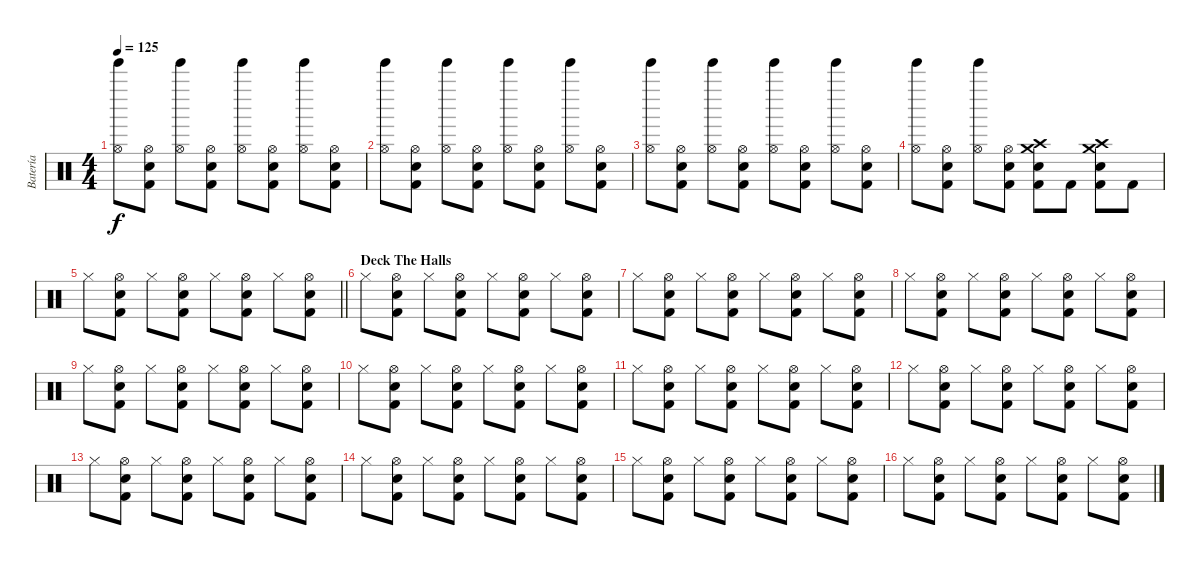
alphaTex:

\track ("Batería" "Batería") {instrument percussion}
\staff {score}
\articulation defaults
\ts (4 4)
\tempo 125
\clef neutral
\ks c
("Tinkle Bell (hit)" "Hi-Hat (open)").8{dy f} ("Snare (hit) 2" "Hi-Hat (open)" "Kick (hit) 2").8 ("Tinkle Bell (hit)" "Hi-Hat (open)").8 ("Snare (hit) 2" "Hi-Hat (open)" "Kick (hit) 2").8 ("Tinkle Bell (hit)" "Hi-Hat (open)").8 ("Snare (hit) 2" "Hi-Hat (open)" "Kick (hit) 2").8 ("Tinkle Bell (hit)" "Hi-Hat (open)").8 ("Snare (hit) 2" "Hi-Hat (open)" "Kick (hit) 2").8 |
("Tinkle Bell (hit)" "Hi-Hat (open)").8 ("Snare (hit) 2" "Hi-Hat (open)" "Kick (hit) 2").8 ("Tinkle Bell (hit)" "Hi-Hat (open)").8 ("Snare (hit) 2" "Hi-Hat (open)" "Kick (hit) 2").8 ("Tinkle Bell (hit)" "Hi-Hat (open)").8 ("Snare (hit) 2" "Hi-Hat (open)" "Kick (hit) 2").8 ("Tinkle Bell (hit)" "Hi-Hat (open)").8 ("Snare (hit) 2" "Hi-Hat (open)" "Kick (hit) 2").8 |
("Tinkle Bell (hit)" "Hi-Hat (open)").8 ("Snare (hit) 2" "Hi-Hat (open)" "Kick (hit) 2").8 ("Tinkle Bell (hit)" "Hi-Hat (open)").8 ("Snare (hit) 2" "Hi-Hat (open)" "Kick (hit) 2").8 ("Tinkle Bell (hit)" "Hi-Hat (open)").8 ("Snare (hit) 2" "Hi-Hat (open)" "Kick (hit) 2").8 ("Tinkle Bell (hit)" "Hi-Hat (open)").8 ("Snare (hit) 2" "Hi-Hat (open)" "Kick (hit) 2").8 |
("Tinkle Bell (hit)" "Hi-Hat (open)").8 ("Snare (hit) 2" "Hi-Hat (open)" "Kick (hit) 2").8 ("Tinkle Bell (hit)" "Hi-Hat (open)").8 ("Snare (hit) 2" "Hi-Hat (open)" "Kick (hit) 2").8 ("Crash medium (hit)" "Crash high (hit)" "Snare (hit) 2" "Kick (hit) 2").8 "Kick (hit) 2".8 ("Crash medium (hit)" "Crash high (hit)" "Snare (hit) 2" "Kick (hit) 2").8 "Kick (hit) 2".8 |
\barLineRight lightlight "Hi-Hat (closed)".8
("Snare (hit) 2" "Hi-Hat (open)" "Kick (hit) 2").8 "Hi-Hat (closed)".8 ("Snare (hit) 2" "Hi-Hat (open)" "Kick (hit) 2").8 "Hi-Hat (closed)".8 ("Snare (hit) 2" "Hi-Hat (open)" "Kick (hit) 2").8 "Hi-Hat (closed)".8 ("Snare (hit) 2" "Hi-Hat (open)" "Kick (hit) 2").8 |
\section ("" "Deck The Halls")
"Hi-Hat (closed)".8 ("Snare (hit) 2" "Hi-Hat (open)" "Kick (hit) 2").8 "Hi-Hat (closed)".8 ("Snare (hit) 2" "Hi-Hat (open)" "Kick (hit) 2").8 "Hi-Hat (closed)".8 ("Snare (hit) 2" "Hi-Hat (open)" "Kick (hit) 2").8 "Hi-Hat (closed)".8 ("Snare (hit) 2" "Hi-Hat (open)" "Kick (hit) 2").8 |
"Hi-Hat (closed)".8 ("Snare (hit) 2" "Hi-Hat (open)" "Kick (hit) 2").8 "Hi-Hat (closed)".8 ("Snare (hit) 2" "Hi-Hat (open)" "Kick (hit) 2").8 "Hi-Hat (closed)".8 ("Snare (hit) 2" "Hi-Hat (open)" "Kick (hit) 2").8 "Hi-Hat (closed)".8 ("Snare (hit) 2" "Hi-Hat (open)" "Kick (hit) 2").8 |
"Hi-Hat (closed)".8 ("Snare (hit) 2" "Hi-Hat (open)" "Kick (hit) 2").8 "Hi-Hat (closed)".8 ("Snare (hit) 2" "Hi-Hat (open)" "Kick (hit) 2").8 "Hi-Hat (closed)".8 ("Snare (hit) 2" "Hi-Hat (open)" "Kick (hit) 2").8 "Hi-Hat (closed)".8 ("Snare (hit) 2" "Hi-Hat (open)" "Kick (hit) 2").8 |
"Hi-Hat (closed)".8 ("Snare (hit) 2" "Hi-Hat (open)" "Kick (hit) 2").8 "Hi-Hat (closed)".8 ("Snare (hit) 2" "Hi-Hat (open)" "Kick (hit) 2").8 "Hi-Hat (closed)".8 ("Snare (hit) 2" "Hi-Hat (open)" "Kick (hit) 2").8 "Hi-Hat (closed)".8 ("Snare (hit) 2" "Hi-Hat (open)" "Kick (hit) 2").8 |
"Hi-Hat (closed)".8 ("Snare (hit) 2" "Hi-Hat (open)" "Kick (hit) 2").8 "Hi-Hat (closed)".8 ("Snare (hit) 2" "Hi-Hat (open)" "Kick (hit) 2").8 "Hi-Hat (closed)".8 ("Snare (hit) 2" "Hi-Hat (open)" "Kick (hit) 2").8 "Hi-Hat (closed)".8 ("Snare (hit) 2" "Hi-Hat (open)" "Kick (hit) 2").8 |
"Hi-Hat (closed)".8 ("Snare (hit) 2" "Hi-Hat (open)" "Kick (hit) 2").8 "Hi-Hat (closed)".8 ("Snare (hit) 2" "Hi-Hat (open)" "Kick (hit) 2").8 "Hi-Hat (closed)".8 ("Snare (hit) 2" "Hi-Hat (open)" "Kick (hit) 2").8 "Hi-Hat (closed)".8 ("Snare (hit) 2" "Hi-Hat (open)" "Kick (hit) 2").8 |
"Hi-Hat (closed)".8 ("Snare (hit) 2" "Hi-Hat (open)" "Kick (hit) 2").8 "Hi-Hat (closed)".8 ("Snare (hit) 2" "Hi-Hat (open)" "Kick (hit) 2").8 "Hi-Hat (closed)".8 ("Snare (hit) 2" "Hi-Hat (open)" "Kick (hit) 2").8 "Hi-Hat (closed)".8 ("Snare (hit) 2" "Hi-Hat (open)" "Kick (hit) 2").8 |
"Hi-Hat (closed)".8 ("Snare (hit) 2" "Hi-Hat (open)" "Kick (hit) 2").8 "Hi-Hat (closed)".8 ("Snare (hit) 2" "Hi-Hat (open)" "Kick (hit) 2").8 "Hi-Hat (closed)".8 ("Snare (hit) 2" "Hi-Hat (open)" "Kick (hit) 2").8 "Hi-Hat (closed)".8 ("Snare (hit) 2" "Hi-Hat (open)" "Kick (hit) 2").8 |
"Hi-Hat (closed)".8 ("Snare (hit) 2" "Hi-Hat (open)" "Kick (hit) 2").8 "Hi-Hat (closed)".8 ("Snare (hit) 2" "Hi-Hat (open)" "Kick (hit) 2").8 "Hi-Hat (closed)".8 ("Snare (hit) 2" "Hi-Hat (open)" "Kick (hit) 2").8 "Hi-Hat (closed)".8 ("Snare (hit) 2" "Hi-Hat (open)" "Kick (hit) 2").8 |
"Hi-Hat (closed)".8 ("Snare (hit) 2" "Hi-Hat (open)" "Kick (hit) 2").8 "Hi-Hat (closed)".8 ("Snare (hit) 2" "Hi-Hat (open)" "Kick (hit) 2").8 "Hi-Hat (closed)".8 ("Snare (hit) 2" "Hi-Hat (open)" "Kick (hit) 2").8 "Hi-Hat (closed)".8 ("Snare (hit) 2" "Hi-Hat (open)" "Kick (hit) 2").8 |
"Hi-Hat (closed)".8 ("Snare (hit) 2" "Hi-Hat (open)" "Kick (hit) 2").8 "Hi-Hat (closed)".8 ("Snare (hit) 2" "Hi-Hat (open)" "Kick (hit) 2").8 "Hi-Hat (closed)".8 ("Snare (hit) 2" "Hi-Hat (open)" "Kick (hit) 2").8 "Hi-Hat (closed)".8 ("Snare (hit) 2" "Hi-Hat (open)" "Kick (hit) 2").8
